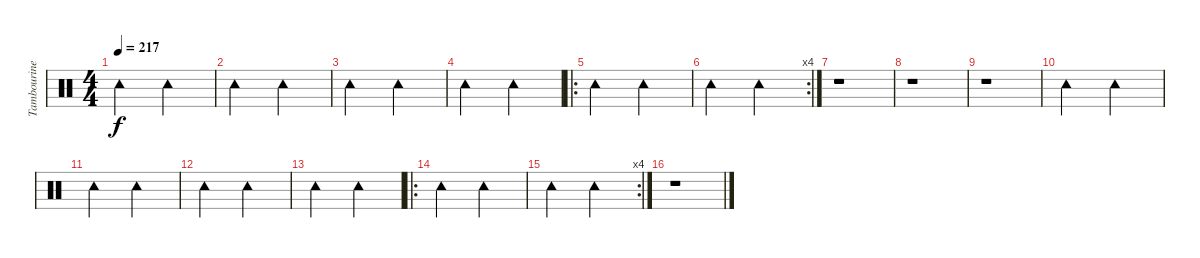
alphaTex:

\track ("Tambourine" "Tambourine") {instrument percussion}
\staff {score}
\articulation defaults
\ts (4 4)
\tempo 217
\clef neutral
\ks c "Tambourine (hit)".2{dy f} "Tambourine (hit)".2
|
"Tambourine (hit)".2 "Tambourine (hit)".2 |
"Tambourine (hit)".2 "Tambourine (hit)".2 |
"Tambourine (hit)".2 "Tambourine (hit)".2 |
\ro "Tambourine (hit)".2 "Tambourine (hit)".2
|
\rc 4 "Tambourine (hit)".2 "Tambourine (hit)".2
|
r.1 |
r.1 |
r.1 |
"Tambourine (hit)".2 "Tambourine (hit)".2 |
"Tambourine (hit)".2 "Tambourine (hit)".2 |
"Tambourine (hit)".2 "Tambourine (hit)".2 |
"Tambourine (hit)".2 "Tambourine (hit)".2 |
\ro "Tambourine (hit)".2 "Tambourine (hit)".2
|
\rc 4 "Tambourine (hit)".2 "Tambourine (hit)".2
|
r.1
